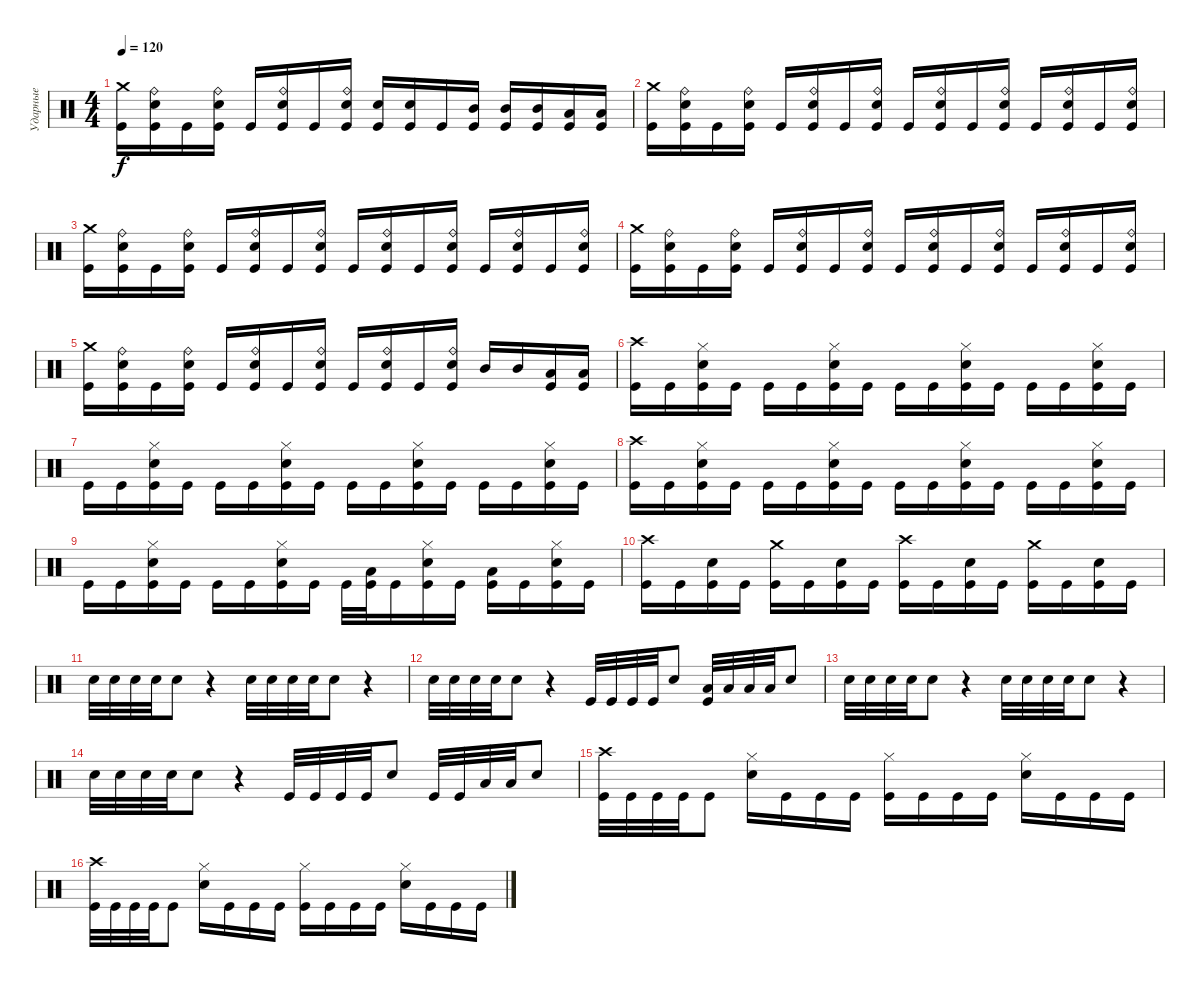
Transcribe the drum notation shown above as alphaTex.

\track ("Ударные" "Ударные") {instrument percussion}
\staff {score}
\articulation defaults
\ts (4 4)
\tempo 120
\clef neutral
\ks c
("Crash medium (hit)" "Kick (hit)").16{dy f} ("Ride (bell)" "Electric Snare (hit)" "Kick (hit)").16 "Kick (hit)".16 ("Ride (bell)" "Electric Snare (hit)" "Kick (hit)").16 "Kick (hit)".16 ("Ride (bell)" "Electric Snare (hit)" "Kick (hit)").16 "Kick (hit)".16 ("Ride (bell)" "Electric Snare (hit)" "Kick (hit)").16 ("Electric Snare (hit)" "Kick (hit)").16 ("Electric Snare (hit)" "Kick (hit)").16 "Kick (hit)".16 ("Mid Tom (hit)" "Kick (hit)").16 ("Mid Tom (hit)" "Kick (hit)").16 ("Mid Tom (hit)" "Kick (hit)").16 ("Low Tom (hit)" "Kick (hit)").16 ("Low Tom (hit)" "Kick (hit)").16 |
("Crash medium (hit)" "Kick (hit)").16 ("Ride (bell)" "Electric Snare (hit)" "Kick (hit)").16 "Kick (hit)".16 ("Ride (bell)" "Electric Snare (hit)" "Kick (hit)").16 "Kick (hit)".16 ("Ride (bell)" "Electric Snare (hit)" "Kick (hit)").16 "Kick (hit)".16 ("Ride (bell)" "Electric Snare (hit)" "Kick (hit)").16 "Kick (hit)".16 ("Ride (bell)" "Electric Snare (hit)" "Kick (hit)").16 "Kick (hit)".16 ("Ride (bell)" "Electric Snare (hit)" "Kick (hit)").16 "Kick (hit)".16 ("Ride (bell)" "Electric Snare (hit)" "Kick (hit)").16 "Kick (hit)".16 ("Ride (bell)" "Electric Snare (hit)" "Kick (hit)").16 |
("Crash medium (hit)" "Kick (hit)").16 ("Ride (bell)" "Electric Snare (hit)" "Kick (hit)").16 "Kick (hit)".16 ("Ride (bell)" "Electric Snare (hit)" "Kick (hit)").16 "Kick (hit)".16 ("Ride (bell)" "Electric Snare (hit)" "Kick (hit)").16 "Kick (hit)".16 ("Ride (bell)" "Electric Snare (hit)" "Kick (hit)").16 "Kick (hit)".16 ("Ride (bell)" "Electric Snare (hit)" "Kick (hit)").16 "Kick (hit)".16 ("Ride (bell)" "Electric Snare (hit)" "Kick (hit)").16 "Kick (hit)".16 ("Ride (bell)" "Electric Snare (hit)" "Kick (hit)").16 "Kick (hit)".16 ("Ride (bell)" "Electric Snare (hit)" "Kick (hit)").16 |
("Crash medium (hit)" "Kick (hit)").16 ("Ride (bell)" "Electric Snare (hit)" "Kick (hit)").16 "Kick (hit)".16 ("Ride (bell)" "Electric Snare (hit)" "Kick (hit)").16 "Kick (hit)".16 ("Ride (bell)" "Electric Snare (hit)" "Kick (hit)").16 "Kick (hit)".16 ("Ride (bell)" "Electric Snare (hit)" "Kick (hit)").16 "Kick (hit)".16 ("Ride (bell)" "Electric Snare (hit)" "Kick (hit)").16 "Kick (hit)".16 ("Ride (bell)" "Electric Snare (hit)" "Kick (hit)").16 "Kick (hit)".16 ("Ride (bell)" "Electric Snare (hit)" "Kick (hit)").16 "Kick (hit)".16 ("Ride (bell)" "Electric Snare (hit)" "Kick (hit)").16 |
("Crash medium (hit)" "Kick (hit)").16 ("Ride (bell)" "Electric Snare (hit)" "Kick (hit)").16 "Kick (hit)".16 ("Ride (bell)" "Electric Snare (hit)" "Kick (hit)").16 "Kick (hit)".16 ("Ride (bell)" "Electric Snare (hit)" "Kick (hit)").16 "Kick (hit)".16 ("Ride (bell)" "Electric Snare (hit)" "Kick (hit)").16 "Kick (hit)".16 ("Ride (bell)" "Electric Snare (hit)" "Kick (hit)").16 "Kick (hit)".16 ("Ride (bell)" "Electric Snare (hit)" "Kick (hit)").16 "Mid Tom (hit)".16 "Mid Tom (hit)".16 ("Low Tom (hit)" "Kick (hit)").16 ("Low Tom (hit)" "Kick (hit)").16 |
("Crash high (hit)" "Kick (hit)").16 "Kick (hit)".16 ("Hi-Hat (closed)" "Electric Snare (hit)" "Kick (hit)").16 "Kick (hit)".16 "Kick (hit)".16 "Kick (hit)".16 ("Hi-Hat (closed)" "Electric Snare (hit)" "Kick (hit)").16 "Kick (hit)".16 "Kick (hit)".16 "Kick (hit)".16 ("Hi-Hat (closed)" "Electric Snare (hit)" "Kick (hit)").16 "Kick (hit)".16 "Kick (hit)".16 "Kick (hit)".16 ("Hi-Hat (closed)" "Electric Snare (hit)" "Kick (hit)").16 "Kick (hit)".16 |
"Kick (hit)".16 "Kick (hit)".16 ("Hi-Hat (closed)" "Electric Snare (hit)" "Kick (hit)").16 "Kick (hit)".16 "Kick (hit)".16 "Kick (hit)".16 ("Hi-Hat (closed)" "Electric Snare (hit)" "Kick (hit)").16 "Kick (hit)".16 "Kick (hit)".16 "Kick (hit)".16 ("Hi-Hat (closed)" "Electric Snare (hit)" "Kick (hit)").16 "Kick (hit)".16 "Kick (hit)".16 "Kick (hit)".16 ("Hi-Hat (closed)" "Electric Snare (hit)" "Kick (hit)").16 "Kick (hit)".16 |
("Crash high (hit)" "Kick (hit)").16 "Kick (hit)".16 ("Hi-Hat (closed)" "Electric Snare (hit)" "Kick (hit)").16 "Kick (hit)".16 "Kick (hit)".16 "Kick (hit)".16 ("Hi-Hat (closed)" "Electric Snare (hit)" "Kick (hit)").16 "Kick (hit)".16 "Kick (hit)".16 "Kick (hit)".16 ("Hi-Hat (closed)" "Electric Snare (hit)" "Kick (hit)").16 "Kick (hit)".16 "Kick (hit)".16 "Kick (hit)".16 ("Hi-Hat (closed)" "Electric Snare (hit)" "Kick (hit)").16 "Kick (hit)".16 |
"Kick (hit)".16 "Kick (hit)".16 ("Hi-Hat (closed)" "Electric Snare (hit)" "Kick (hit)").16 "Kick (hit)".16 "Kick (hit)".16 "Kick (hit)".16 ("Hi-Hat (closed)" "Electric Snare (hit)" "Kick (hit)").16 "Kick (hit)".16 "Kick (hit)".32 ("Low Tom (hit)" "Kick (hit)").32 "Kick (hit)".16 ("Hi-Hat (closed)" "Electric Snare (hit)" "Kick (hit)").16 "Kick (hit)".16 ("Low Tom (hit)" "Kick (hit)").16 "Kick (hit)".16 ("Hi-Hat (closed)" "Electric Snare (hit)" "Kick (hit)").16 "Kick (hit)".16 |
("Crash high (hit)" "Kick (hit)").16 "Kick (hit)".16 ("Electric Snare (hit)" "Kick (hit)").16 "Kick (hit)".16 ("Crash medium (hit)" "Kick (hit)").16 "Kick (hit)".16 ("Electric Snare (hit)" "Kick (hit)").16 "Kick (hit)".16 ("Crash high (hit)" "Kick (hit)").16 "Kick (hit)".16 ("Electric Snare (hit)" "Kick (hit)").16 "Kick (hit)".16 ("Crash medium (hit)" "Kick (hit)").16 "Kick (hit)".16 ("Electric Snare (hit)" "Kick (hit)").16 "Kick (hit)".16 |
"Electric Snare (hit)".32 "Electric Snare (hit)".32 "Electric Snare (hit)".32 "Electric Snare (hit)".32 "Electric Snare (hit)".8 r.4 "Electric Snare (hit)".32 "Electric Snare (hit)".32 "Electric Snare (hit)".32 "Electric Snare (hit)".32 "Electric Snare (hit)".8 r.4 |
"Electric Snare (hit)".32 "Electric Snare (hit)".32 "Electric Snare (hit)".32 "Electric Snare (hit)".32 "Electric Snare (hit)".8 r.4 "Kick (hit)".32 "Kick (hit)".32 "Kick (hit)".32 "Kick (hit)".32 "Electric Snare (hit)".8 ("Low Tom (hit)" "Kick (hit)").32 "Low Tom (hit)".32 "Low Tom (hit)".32 "Low Tom (hit)".32 "Electric Snare (hit)".8 |
"Electric Snare (hit)".32 "Electric Snare (hit)".32 "Electric Snare (hit)".32 "Electric Snare (hit)".32 "Electric Snare (hit)".8 r.4 "Electric Snare (hit)".32 "Electric Snare (hit)".32 "Electric Snare (hit)".32 "Electric Snare (hit)".32 "Electric Snare (hit)".8 r.4 |
"Electric Snare (hit)".32 "Electric Snare (hit)".32 "Electric Snare (hit)".32 "Electric Snare (hit)".32 "Electric Snare (hit)".8 r.4 "Kick (hit)".32 "Kick (hit)".32 "Kick (hit)".32 "Kick (hit)".32 "Electric Snare (hit)".8 "Kick (hit)".32 "Kick (hit)".32 "Low Tom (hit)".32 "Low Tom (hit)".32 "Electric Snare (hit)".8 |
("Crash high (hit)" "Kick (hit)").32 "Kick (hit)".32 "Kick (hit)".32 "Kick (hit)".32 "Kick (hit)".8 ("Hi-Hat (closed)" "Electric Snare (hit)").16 "Kick (hit)".16 "Kick (hit)".16 "Kick (hit)".16 ("Hi-Hat (closed)" "Kick (hit)").16 "Kick (hit)".16 "Kick (hit)".16 "Kick (hit)".16 ("Hi-Hat (closed)" "Electric Snare (hit)").16 "Kick (hit)".16 "Kick (hit)".16 "Kick (hit)".16 |
("Crash high (hit)" "Kick (hit)").32 "Kick (hit)".32 "Kick (hit)".32 "Kick (hit)".32 "Kick (hit)".8 ("Hi-Hat (closed)" "Electric Snare (hit)").16 "Kick (hit)".16 "Kick (hit)".16 "Kick (hit)".16 ("Hi-Hat (closed)" "Kick (hit)").16 "Kick (hit)".16 "Kick (hit)".16 "Kick (hit)".16 ("Hi-Hat (closed)" "Electric Snare (hit)").16 "Kick (hit)".16 "Kick (hit)".16 "Kick (hit)".16
